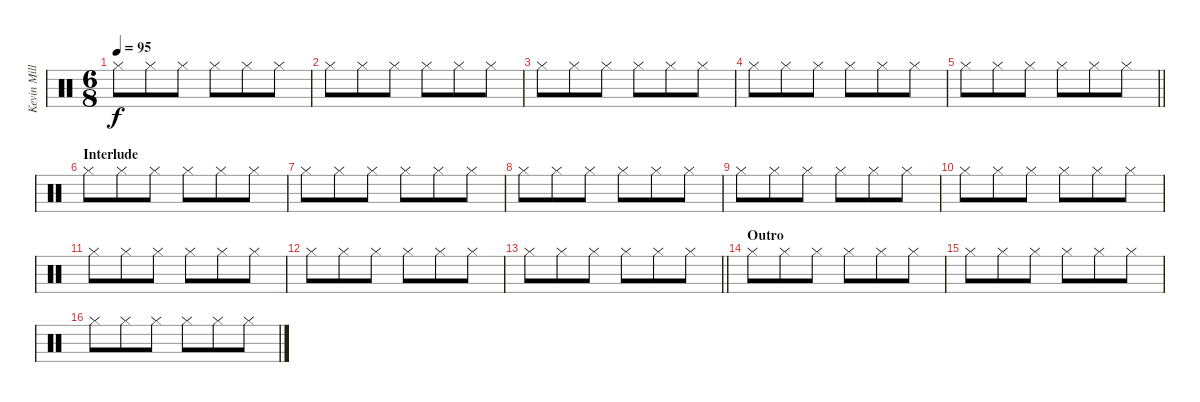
\track ("Kevin Miller (Drums)" "Kevin Mill") {instrument percussion}
\staff {score}
\articulation defaults
\ts (6 8)
\tempo 95
\clef neutral
\ks c "Hi-Hat (closed)".8{dy f} "Hi-Hat (closed)".8 "Hi-Hat (closed)".8 "Hi-Hat (closed)".8 "Hi-Hat (closed)".8 "Hi-Hat (closed)".8
|
"Hi-Hat (closed)".8 "Hi-Hat (closed)".8 "Hi-Hat (closed)".8 "Hi-Hat (closed)".8 "Hi-Hat (closed)".8 "Hi-Hat (closed)".8 |
"Hi-Hat (closed)".8 "Hi-Hat (closed)".8 "Hi-Hat (closed)".8 "Hi-Hat (closed)".8 "Hi-Hat (closed)".8 "Hi-Hat (closed)".8 |
"Hi-Hat (closed)".8 "Hi-Hat (closed)".8 "Hi-Hat (closed)".8 "Hi-Hat (closed)".8 "Hi-Hat (closed)".8 "Hi-Hat (closed)".8 |
\barLineRight lightlight "Hi-Hat (closed)".8 "Hi-Hat (closed)".8 "Hi-Hat (closed)".8 "Hi-Hat (closed)".8 "Hi-Hat (closed)".8 "Hi-Hat (closed)".8
|
\section ("" "Interlude")
"Hi-Hat (closed)".8 "Hi-Hat (closed)".8 "Hi-Hat (closed)".8 "Hi-Hat (closed)".8 "Hi-Hat (closed)".8 "Hi-Hat (closed)".8 |
"Hi-Hat (closed)".8 "Hi-Hat (closed)".8 "Hi-Hat (closed)".8 "Hi-Hat (closed)".8 "Hi-Hat (closed)".8 "Hi-Hat (closed)".8 |
"Hi-Hat (closed)".8 "Hi-Hat (closed)".8 "Hi-Hat (closed)".8 "Hi-Hat (closed)".8 "Hi-Hat (closed)".8 "Hi-Hat (closed)".8 |
"Hi-Hat (closed)".8 "Hi-Hat (closed)".8 "Hi-Hat (closed)".8 "Hi-Hat (closed)".8 "Hi-Hat (closed)".8 "Hi-Hat (closed)".8 |
"Hi-Hat (closed)".8 "Hi-Hat (closed)".8 "Hi-Hat (closed)".8 "Hi-Hat (closed)".8 "Hi-Hat (closed)".8 "Hi-Hat (closed)".8 |
"Hi-Hat (closed)".8 "Hi-Hat (closed)".8 "Hi-Hat (closed)".8 "Hi-Hat (closed)".8 "Hi-Hat (closed)".8 "Hi-Hat (closed)".8 |
"Hi-Hat (closed)".8 "Hi-Hat (closed)".8 "Hi-Hat (closed)".8 "Hi-Hat (closed)".8 "Hi-Hat (closed)".8 "Hi-Hat (closed)".8 |
\barLineRight lightlight "Hi-Hat (closed)".8 "Hi-Hat (closed)".8 "Hi-Hat (closed)".8 "Hi-Hat (closed)".8 "Hi-Hat (closed)".8 "Hi-Hat (closed)".8
|
\section ("" "Outro")
"Hi-Hat (closed)".8 "Hi-Hat (closed)".8 "Hi-Hat (closed)".8 "Hi-Hat (closed)".8 "Hi-Hat (closed)".8 "Hi-Hat (closed)".8 |
"Hi-Hat (closed)".8 "Hi-Hat (closed)".8 "Hi-Hat (closed)".8 "Hi-Hat (closed)".8 "Hi-Hat (closed)".8 "Hi-Hat (closed)".8 |
"Hi-Hat (closed)".8 "Hi-Hat (closed)".8 "Hi-Hat (closed)".8 "Hi-Hat (closed)".8 "Hi-Hat (closed)".8 "Hi-Hat (closed)".8
